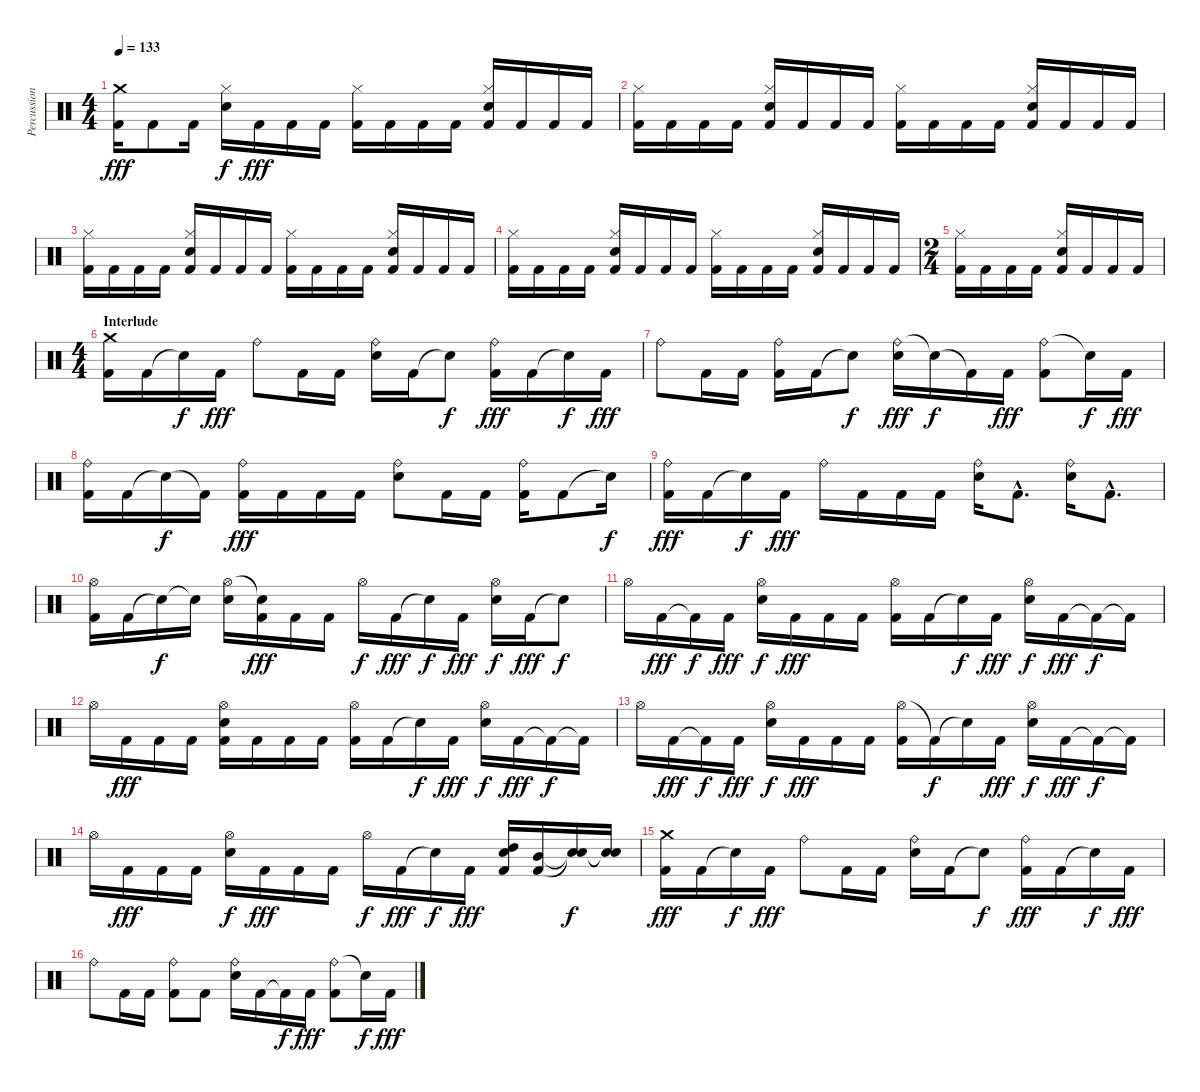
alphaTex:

\track ("Percussion" "Percussion") {instrument percussion}
\staff {score}
\articulation defaults
\ts (4 4)
\tempo 133
\clef neutral
\ks c
("Crash medium (hit)" "Kick (hit) 2").16{dy fff} "Kick (hit) 2".8 "Kick (hit) 2".16 ("Hi-Hat (closed)" "Electric Snare (hit)").16{dy f} "Kick (hit) 2".16{dy fff} "Kick (hit) 2".16 "Kick (hit) 2".16 ("Hi-Hat (closed)" "Kick (hit) 2").16 "Kick (hit) 2".16 "Kick (hit) 2".16 "Kick (hit) 2".16 ("Hi-Hat (closed)" "Electric Snare (hit)" "Kick (hit) 2").16 "Kick (hit) 2".16 "Kick (hit) 2".16 "Kick (hit) 2".16 |
("Hi-Hat (closed)" "Kick (hit) 2").16 "Kick (hit) 2".16 "Kick (hit) 2".16 "Kick (hit) 2".16 ("Hi-Hat (closed)" "Electric Snare (hit)" "Kick (hit) 2").16 "Kick (hit) 2".16 "Kick (hit) 2".16 "Kick (hit) 2".16 ("Hi-Hat (closed)" "Kick (hit) 2").16 "Kick (hit) 2".16 "Kick (hit) 2".16 "Kick (hit) 2".16 ("Hi-Hat (closed)" "Electric Snare (hit)" "Kick (hit) 2").16 "Kick (hit) 2".16 "Kick (hit) 2".16 "Kick (hit) 2".16 |
("Hi-Hat (closed)" "Kick (hit) 2").16 "Kick (hit) 2".16 "Kick (hit) 2".16 "Kick (hit) 2".16 ("Hi-Hat (closed)" "Electric Snare (hit)" "Kick (hit) 2").16 "Kick (hit) 2".16 "Kick (hit) 2".16 "Kick (hit) 2".16 ("Hi-Hat (closed)" "Kick (hit) 2").16 "Kick (hit) 2".16 "Kick (hit) 2".16 "Kick (hit) 2".16 ("Hi-Hat (closed)" "Electric Snare (hit)" "Kick (hit) 2").16 "Kick (hit) 2".16 "Kick (hit) 2".16 "Kick (hit) 2".16 |
("Hi-Hat (closed)" "Kick (hit) 2").16 "Kick (hit) 2".16 "Kick (hit) 2".16 "Kick (hit) 2".16 ("Hi-Hat (closed)" "Electric Snare (hit)" "Kick (hit) 2").16 "Kick (hit) 2".16 "Kick (hit) 2".16 "Kick (hit) 2".16 ("Hi-Hat (closed)" "Kick (hit) 2").16 "Kick (hit) 2".16 "Kick (hit) 2".16 "Kick (hit) 2".16 ("Hi-Hat (closed)" "Electric Snare (hit)" "Kick (hit) 2").16 "Kick (hit) 2".16 "Kick (hit) 2".16 "Kick (hit) 2".16 |
\ts (2 4)
("Hi-Hat (closed)" "Kick (hit) 2").16 "Kick (hit) 2".16 "Kick (hit) 2".16 "Kick (hit) 2".16 ("Hi-Hat (closed)" "Electric Snare (hit)" "Kick (hit) 2").16 "Kick (hit) 2".16 "Kick (hit) 2".16 "Kick (hit) 2".16 |
\ts (4 4)
\section ("" "Interlude")
("Crash medium (hit)" "Kick (hit) 2").16 "Kick (hit) 2".16 "Snare (hit)"{t}.16{dy f} "Kick (hit) 2".16{dy fff} "Ride (bell)".8 "Kick (hit) 2".16 "Kick (hit) 2".16 ("Ride (bell)" "Electric Snare (hit)").16 "Kick (hit) 2".16 "Snare (hit)"{t}.8{dy f} ("Ride (bell)" "Kick (hit) 2").16{dy fff} "Kick (hit) 2".16 "Snare (hit)"{t}.16{dy f} "Kick (hit) 2".16{dy fff} |
"Ride (bell)".8 "Kick (hit) 2".16 "Kick (hit) 2".16 ("Ride (bell)" "Kick (hit) 2").16 "Kick (hit) 2".16 "Electric Snare (hit)"{t}.8{dy f} ("Ride (bell)" "Electric Snare (hit)").16{dy fff} "Snare (hit)"{t}.16{dy f} "Kick (hit) 2"{t}.16 "Kick (hit) 2".16{dy fff} ("Ride (bell)" "Kick (hit) 2").8 "Snare (hit)"{t}.16{dy f} "Kick (hit) 2".16{dy fff} |
("Ride (bell)" "Kick (hit) 2").16 "Kick (hit) 2".16 "Snare (hit)"{t}.16{dy f} "Kick (hit) 2"{t}.16 ("Ride (bell)" "Kick (hit) 2").16{dy fff} "Kick (hit) 2".16 "Kick (hit) 2".16 "Kick (hit) 2".16 ("Ride (bell)" "Electric Snare (hit)").8 "Kick (hit) 2".16 "Kick (hit) 2".16 ("Ride (bell)" "Kick (hit) 2").16 "Kick (hit) 2".8 "Snare (hit)"{t}.16{dy f} |
("Ride (bell)" "Kick (hit) 2").16{dy fff} "Kick (hit) 2".16 "Snare (hit)"{t}.16{dy f} "Kick (hit) 2".16{dy fff} "Ride (bell)".16 "Kick (hit) 2".16 "Kick (hit) 2".16 "Kick (hit) 2".16 ("Ride (bell)" "Electric Snare (hit)").16 "Kick (hit) 2"{hac}.8{d} ("Ride (bell)" "Electric Snare (hit)").16 "Kick (hit) 2"{hac}.8{d} |
("Hi-Hat (open)" "Kick (hit) 2").16 "Kick (hit) 2".16 "Snare (hit)"{t}.16{dy f} "Snare (hit)"{t}.16 ("Hi-Hat (open)" "Electric Snare (hit)").16 ("Snare (hit)"{t} "Kick (hit) 2").16{dy fff} "Kick (hit) 2".16 "Kick (hit) 2".16 "Hi-Hat (open)".16{dy f} "Kick (hit) 2".16{dy fff} "Snare (hit)"{t}.16{dy f} "Kick (hit) 2".16{dy fff} ("Hi-Hat (open)" "Electric Snare (hit)").16{dy f} "Kick (hit) 2".16{dy fff} "Snare (hit)"{t}.8{dy f} |
"Hi-Hat (open)".16 "Kick (hit) 2".16{dy fff} "Kick (hit) 2"{t}.16{dy f} "Kick (hit) 2".16{dy fff} ("Hi-Hat (open)" "Electric Snare (hit)").16{dy f} "Kick (hit) 2".16{dy fff} "Kick (hit) 2".16 "Kick (hit) 2".16 ("Hi-Hat (open)" "Kick (hit) 2").16 "Kick (hit) 2".16 "Snare (hit)"{t}.16{dy f} "Kick (hit) 2".16{dy fff} ("Hi-Hat (open)" "Electric Snare (hit)").16{dy f} "Kick (hit) 2".16{dy fff} "Kick (hit) 2"{t}.16{dy f} "Kick (hit) 2"{t}.16 |
"Hi-Hat (open)".16 "Kick (hit) 2".16{dy fff} "Kick (hit) 2".16 "Kick (hit) 2".16 ("Hi-Hat (open)" "Electric Snare (hit)" "Kick (hit) 2").16 "Kick (hit) 2".16 "Kick (hit) 2".16 "Kick (hit) 2".16 ("Hi-Hat (open)" "Kick (hit) 2").16 "Kick (hit) 2".16 "Snare (hit)"{t}.16{dy f} "Kick (hit) 2".16{dy fff} ("Hi-Hat (open)" "Electric Snare (hit)").16{dy f} "Kick (hit) 2".16{dy fff} "Kick (hit) 2"{t}.16{dy f} "Kick (hit) 2"{t}.16 |
"Hi-Hat (open)".16 "Kick (hit) 2".16{dy fff} "Kick (hit) 2"{t}.16{dy f} "Kick (hit) 2".16{dy fff} ("Hi-Hat (open)" "Electric Snare (hit)").16{dy f} "Kick (hit) 2".16{dy fff} "Kick (hit) 2".16 "Kick (hit) 2".16 ("Hi-Hat (open)" "Kick (hit) 2").16 "Kick (hit) 2"{t}.16{dy f} "Snare (hit)"{t}.16 "Kick (hit) 2".16{dy fff} ("Hi-Hat (open)" "Electric Snare (hit)").16{dy f} "Kick (hit) 2".16{dy fff} "Kick (hit) 2"{t}.16{dy f} "Kick (hit) 2"{t}.16 |
"Hi-Hat (open)".16 "Kick (hit) 2".16{dy fff} "Kick (hit) 2".16 "Kick (hit) 2".16 ("Hi-Hat (open)" "Electric Snare (hit)").16{dy f} "Kick (hit) 2".16{dy fff} "Kick (hit) 2".16 "Kick (hit) 2".16 "Hi-Hat (open)".16{dy f} "Kick (hit) 2".16{dy fff} "Snare (hit)"{t}.16{dy f} "Kick (hit) 2".16{dy fff} ("High Tom (hit)" "Electric Snare (hit)" "Kick (hit) 2").16 ("Mid Tom (hit)" "Kick (hit) 2").16 ("Snare (hit)"{t} "Snare (hit)"{t}).16{dy f} ("Snare (hit)"{t} "Snare (hit)"{t}).16 |
("Crash medium (hit)" "Kick (hit) 2").16{dy fff} "Kick (hit) 2".16 "Snare (hit)"{t}.16{dy f} "Kick (hit) 2".16{dy fff} "Ride (bell)".8 "Kick (hit) 2".16 "Kick (hit) 2".16 ("Ride (bell)" "Electric Snare (hit)").16 "Kick (hit) 2".16 "Snare (hit)"{t}.8{dy f} ("Ride (bell)" "Kick (hit) 2").16{dy fff} "Kick (hit) 2".16 "Snare (hit)"{t}.16{dy f} "Kick (hit) 2".16{dy fff} |
"Ride (bell)".8 "Kick (hit) 2".16 "Kick (hit) 2".16 ("Ride (bell)" "Kick (hit) 2").8 "Kick (hit) 2".8 ("Ride (bell)" "Electric Snare (hit)").16 "Kick (hit) 2".16 "Kick (hit) 2"{t}.16{dy f} "Kick (hit) 2".16{dy fff} ("Ride (bell)" "Kick (hit) 2").8 "Snare (hit)"{t}.16{dy f} "Kick (hit) 2".16{dy fff}
